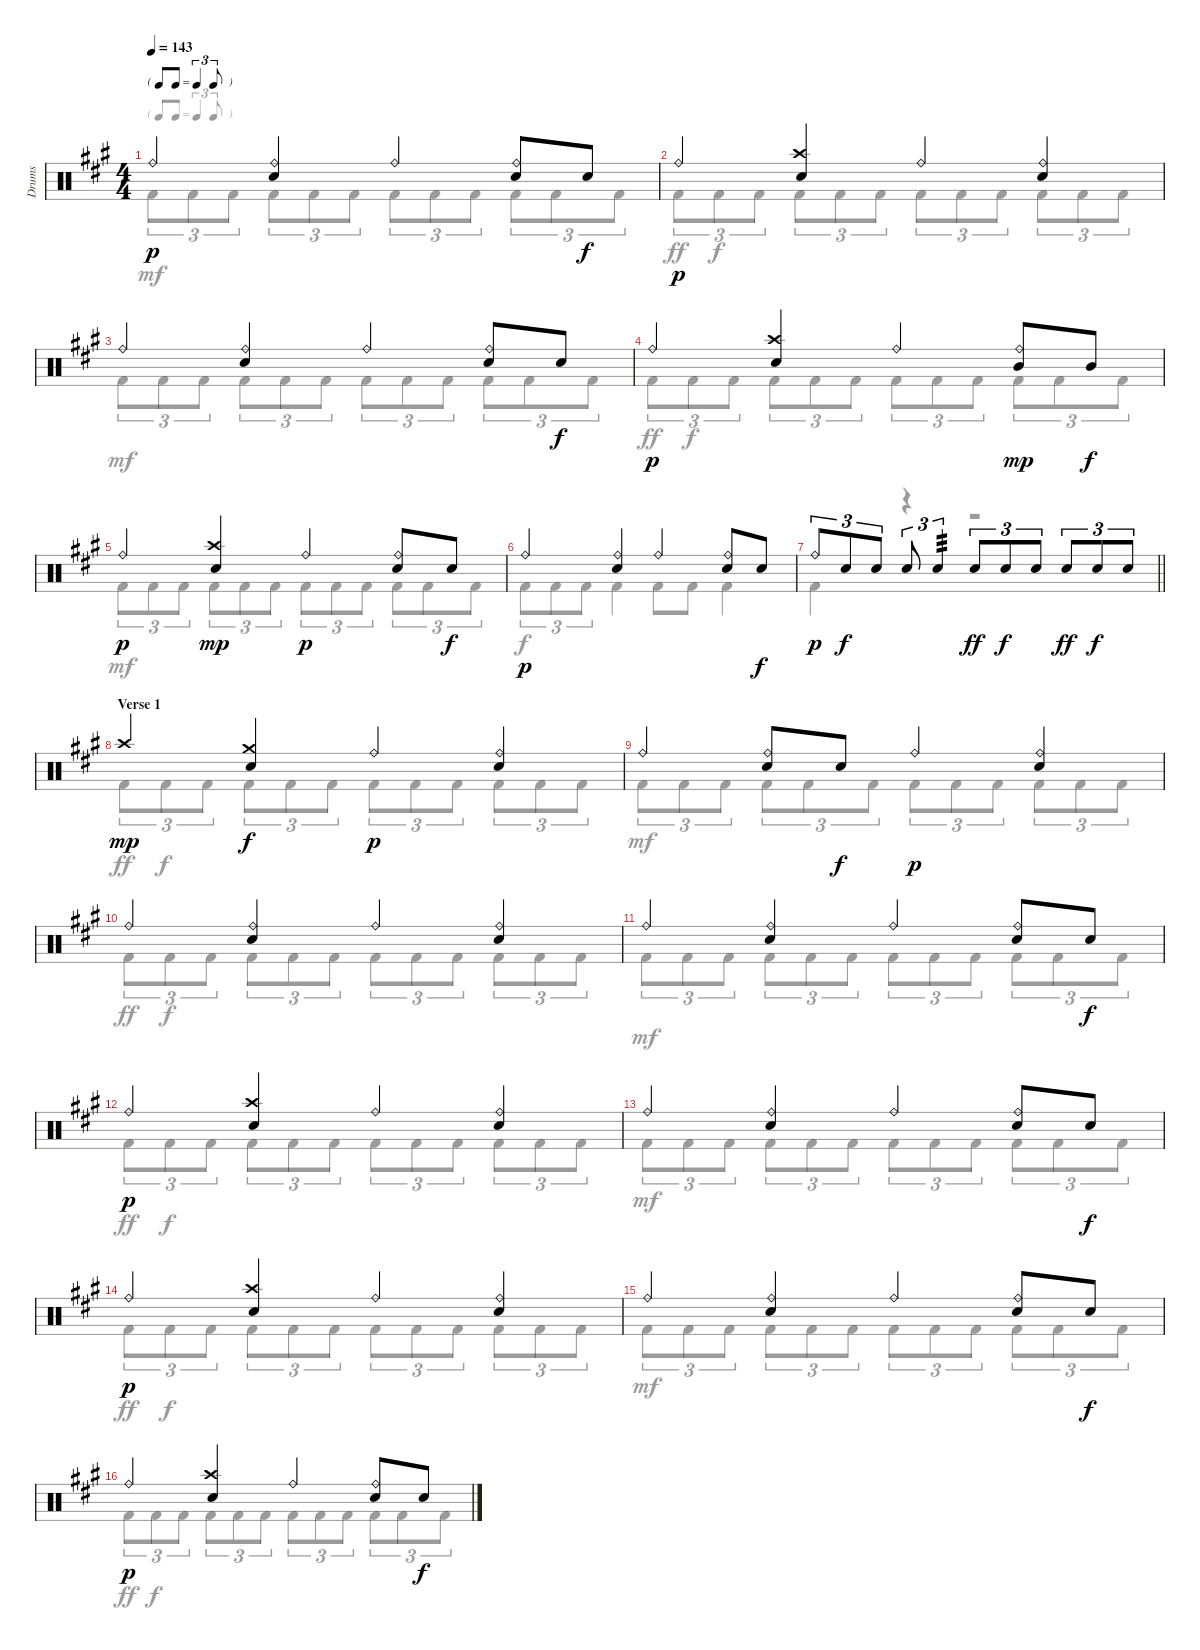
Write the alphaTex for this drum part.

\track ("Drums" "Drums") {instrument percussion}
\staff {score}
\articulation defaults
\voice
\ts (4 4)
\tf triplet8th
\tempo 143
\clef neutral
\ks a "Ride (bell)".4{dy p}
("Ride (bell)" "Electric Snare (hit)").4 "Ride (bell)".4 ("Ride (bell)" "Electric Snare (hit)").8 "Electric Snare (hit)".8{dy f} |
"Ride (bell)".4{dy p} ("Electric Snare (hit)" "Crash high (hit)").4 "Ride (bell)".4 ("Ride (bell)" "Electric Snare (hit)").4 |
"Ride (bell)".4 ("Ride (bell)" "Electric Snare (hit)").4 "Ride (bell)".4 ("Ride (bell)" "Electric Snare (hit)").8 "Electric Snare (hit)".8{dy f} |
"Ride (bell)".4{dy p} ("Electric Snare (hit)" "Crash high (hit)").4 "Ride (bell)".4 ("Ride (bell)" "Mid Tom (hit)").8{dy mp} "Mid Tom (hit)".8{dy f} |
"Ride (bell)".4{dy p} ("Crash high (hit)" "Electric Snare (hit)").4{dy mp} "Ride (bell)".4{dy p} ("Ride (bell)" "Electric Snare (hit)").8 "Electric Snare (hit)".8{dy f} |
"Ride (bell)".4{dy p} ("Ride (bell)" "Electric Snare (hit)").4 "Ride (bell)".4 ("Ride (bell)" "Electric Snare (hit)").8 "Electric Snare (hit)".8{dy f} |
\barLineRight lightlight "Ride (bell)".8{tu (3 2) dy p} "Electric Snare (hit)".8{tu (3 2) dy f} "Electric Snare (hit)".8{tu (3 2)} "Electric Snare (hit)".8{tu (3 2)} "Electric Snare (hit)".4{tu (3 2) tp 3} "Electric Snare (hit)".8{tu (3 2) dy ff} "Electric Snare (hit)".8{tu (3 2) dy f} "Electric Snare (hit)".8{tu (3 2)} "Electric Snare (hit)".8{tu (3 2) dy ff} "Electric Snare (hit)".8{tu (3 2) dy f} "Electric Snare (hit)".8{tu (3 2)}
|
\section ("" "Verse 1")
"Crash high (hit)".4{dy mp} ("Electric Snare (hit)" "Crash medium (hit)").4{dy f} "Ride (bell)".4{dy p} ("Ride (bell)" "Electric Snare (hit)").4 |
"Ride (bell)".4 ("Ride (bell)" "Electric Snare (hit)").8 "Electric Snare (hit)".8{dy f} "Ride (bell)".4{dy p} ("Ride (bell)" "Electric Snare (hit)").4 |
"Ride (bell)".4 ("Electric Snare (hit)" "Ride (bell)").4 "Ride (bell)".4 ("Ride (bell)" "Electric Snare (hit)").4 |
"Ride (bell)".4 ("Ride (bell)" "Electric Snare (hit)").4 "Ride (bell)".4 ("Ride (bell)" "Electric Snare (hit)").8 "Electric Snare (hit)".8{dy f} |
"Ride (bell)".4{dy p} ("Electric Snare (hit)" "Crash high (hit)").4 "Ride (bell)".4 ("Ride (bell)" "Electric Snare (hit)").4 |
"Ride (bell)".4 ("Ride (bell)" "Electric Snare (hit)").4 "Ride (bell)".4 ("Ride (bell)" "Electric Snare (hit)").8 "Electric Snare (hit)".8{dy f} |
"Ride (bell)".4{dy p} ("Electric Snare (hit)" "Crash high (hit)").4 "Ride (bell)".4 ("Ride (bell)" "Electric Snare (hit)").4 |
"Ride (bell)".4 ("Ride (bell)" "Electric Snare (hit)").4 "Ride (bell)".4 ("Ride (bell)" "Electric Snare (hit)").8 "Electric Snare (hit)".8{dy f} |
"Ride (bell)".4{dy p} ("Electric Snare (hit)" "Crash high (hit)").4 "Ride (bell)".4 ("Ride (bell)" "Electric Snare (hit)").8 "Electric Snare (hit)".8{dy f}
\voice
\clef neutral
\ottava regular
\simile none
\ks a "Kick (hit) 2".8{tu (3 2) dy mf} "Kick (hit) 2".8{tu (3 2)} "Kick (hit) 2".8{tu (3 2)} "Kick (hit) 2".8{tu (3 2)} "Kick (hit) 2".8{tu (3 2)} "Kick (hit) 2".8{tu (3 2)} "Kick (hit) 2".8{tu (3 2)} "Kick (hit) 2".8{tu (3 2)} "Kick (hit) 2".8{tu (3 2)} "Kick (hit) 2".8{tu (3 2)} "Kick (hit) 2".8{tu (3 2)} "Kick (hit) 2".8{tu (3 2)}
|
"Kick (hit) 2".8{tu (3 2) dy ff} "Kick (hit) 2".8{tu (3 2) dy f} "Kick (hit) 2".8{tu (3 2)} "Kick (hit) 2".8{tu (3 2)} "Kick (hit) 2".8{tu (3 2)} "Kick (hit) 2".8{tu (3 2)} "Kick (hit) 2".8{tu (3 2)} "Kick (hit) 2".8{tu (3 2)} "Kick (hit) 2".8{tu (3 2)} "Kick (hit) 2".8{tu (3 2)} "Kick (hit) 2".8{tu (3 2)} "Kick (hit) 2".8{tu (3 2)} |
"Kick (hit) 2".8{tu (3 2) dy mf} "Kick (hit) 2".8{tu (3 2)} "Kick (hit) 2".8{tu (3 2)} "Kick (hit) 2".8{tu (3 2)} "Kick (hit) 2".8{tu (3 2)} "Kick (hit) 2".8{tu (3 2)} "Kick (hit) 2".8{tu (3 2)} "Kick (hit) 2".8{tu (3 2)} "Kick (hit) 2".8{tu (3 2)} "Kick (hit) 2".8{tu (3 2)} "Kick (hit) 2".8{tu (3 2)} "Kick (hit) 2".8{tu (3 2)} |
"Kick (hit) 2".8{tu (3 2) dy ff} "Kick (hit) 2".8{tu (3 2) dy f} "Kick (hit) 2".8{tu (3 2)} "Kick (hit) 2".8{tu (3 2)} "Kick (hit) 2".8{tu (3 2)} "Kick (hit) 2".8{tu (3 2)} "Kick (hit) 2".8{tu (3 2)} "Kick (hit) 2".8{tu (3 2)} "Kick (hit) 2".8{tu (3 2)} "Kick (hit) 2".8{tu (3 2)} "Kick (hit) 2".8{tu (3 2)} "Kick (hit) 2".8{tu (3 2)} |
"Kick (hit) 2".8{tu (3 2) dy mf} "Kick (hit) 2".8{tu (3 2)} "Kick (hit) 2".8{tu (3 2)} "Kick (hit) 2".8{tu (3 2)} "Kick (hit) 2".8{tu (3 2)} "Kick (hit) 2".8{tu (3 2)} "Kick (hit) 2".8{tu (3 2)} "Kick (hit) 2".8{tu (3 2)} "Kick (hit) 2".8{tu (3 2)} "Kick (hit) 2".8{tu (3 2)} "Kick (hit) 2".8{tu (3 2)} "Kick (hit) 2".8{tu (3 2)} |
"Kick (hit) 2".8{tu (3 2) dy f} "Kick (hit) 2".8{tu (3 2)} "Kick (hit) 2".8{tu (3 2)} "Kick (hit) 2".4 "Kick (hit) 2".8 "Kick (hit) 2".8 "Kick (hit) 2".4 |
\barLineRight lightlight "Kick (hit) 2".4
r.4 r.2 |
"Kick (hit) 2".8{tu (3 2) dy ff} "Kick (hit) 2".8{tu (3 2) dy f} "Kick (hit) 2".8{tu (3 2)} "Kick (hit) 2".8{tu (3 2)} "Kick (hit) 2".8{tu (3 2)} "Kick (hit) 2".8{tu (3 2)} "Kick (hit) 2".8{tu (3 2)} "Kick (hit) 2".8{tu (3 2)} "Kick (hit) 2".8{tu (3 2)} "Kick (hit) 2".8{tu (3 2)} "Kick (hit) 2".8{tu (3 2)} "Kick (hit) 2".8{tu (3 2)} |
"Kick (hit) 2".8{tu (3 2) dy mf} "Kick (hit) 2".8{tu (3 2)} "Kick (hit) 2".8{tu (3 2)} "Kick (hit) 2".8{tu (3 2)} "Kick (hit) 2".8{tu (3 2)} "Kick (hit) 2".8{tu (3 2)} "Kick (hit) 2".8{tu (3 2)} "Kick (hit) 2".8{tu (3 2)} "Kick (hit) 2".8{tu (3 2)} "Kick (hit) 2".8{tu (3 2)} "Kick (hit) 2".8{tu (3 2)} "Kick (hit) 2".8{tu (3 2)} |
"Kick (hit) 2".8{tu (3 2) dy ff} "Kick (hit) 2".8{tu (3 2) dy f} "Kick (hit) 2".8{tu (3 2)} "Kick (hit) 2".8{tu (3 2)} "Kick (hit) 2".8{tu (3 2)} "Kick (hit) 2".8{tu (3 2)} "Kick (hit) 2".8{tu (3 2)} "Kick (hit) 2".8{tu (3 2)} "Kick (hit) 2".8{tu (3 2)} "Kick (hit) 2".8{tu (3 2)} "Kick (hit) 2".8{tu (3 2)} "Kick (hit) 2".8{tu (3 2)} |
"Kick (hit) 2".8{tu (3 2) dy mf} "Kick (hit) 2".8{tu (3 2)} "Kick (hit) 2".8{tu (3 2)} "Kick (hit) 2".8{tu (3 2)} "Kick (hit) 2".8{tu (3 2)} "Kick (hit) 2".8{tu (3 2)} "Kick (hit) 2".8{tu (3 2)} "Kick (hit) 2".8{tu (3 2)} "Kick (hit) 2".8{tu (3 2)} "Kick (hit) 2".8{tu (3 2)} "Kick (hit) 2".8{tu (3 2)} "Kick (hit) 2".8{tu (3 2)} |
"Kick (hit) 2".8{tu (3 2) dy ff} "Kick (hit) 2".8{tu (3 2) dy f} "Kick (hit) 2".8{tu (3 2)} "Kick (hit) 2".8{tu (3 2)} "Kick (hit) 2".8{tu (3 2)} "Kick (hit) 2".8{tu (3 2)} "Kick (hit) 2".8{tu (3 2)} "Kick (hit) 2".8{tu (3 2)} "Kick (hit) 2".8{tu (3 2)} "Kick (hit) 2".8{tu (3 2)} "Kick (hit) 2".8{tu (3 2)} "Kick (hit) 2".8{tu (3 2)} |
"Kick (hit) 2".8{tu (3 2) dy mf} "Kick (hit) 2".8{tu (3 2)} "Kick (hit) 2".8{tu (3 2)} "Kick (hit) 2".8{tu (3 2)} "Kick (hit) 2".8{tu (3 2)} "Kick (hit) 2".8{tu (3 2)} "Kick (hit) 2".8{tu (3 2)} "Kick (hit) 2".8{tu (3 2)} "Kick (hit) 2".8{tu (3 2)} "Kick (hit) 2".8{tu (3 2)} "Kick (hit) 2".8{tu (3 2)} "Kick (hit) 2".8{tu (3 2)} |
"Kick (hit) 2".8{tu (3 2) dy ff} "Kick (hit) 2".8{tu (3 2) dy f} "Kick (hit) 2".8{tu (3 2)} "Kick (hit) 2".8{tu (3 2)} "Kick (hit) 2".8{tu (3 2)} "Kick (hit) 2".8{tu (3 2)} "Kick (hit) 2".8{tu (3 2)} "Kick (hit) 2".8{tu (3 2)} "Kick (hit) 2".8{tu (3 2)} "Kick (hit) 2".8{tu (3 2)} "Kick (hit) 2".8{tu (3 2)} "Kick (hit) 2".8{tu (3 2)} |
"Kick (hit) 2".8{tu (3 2) dy mf} "Kick (hit) 2".8{tu (3 2)} "Kick (hit) 2".8{tu (3 2)} "Kick (hit) 2".8{tu (3 2)} "Kick (hit) 2".8{tu (3 2)} "Kick (hit) 2".8{tu (3 2)} "Kick (hit) 2".8{tu (3 2)} "Kick (hit) 2".8{tu (3 2)} "Kick (hit) 2".8{tu (3 2)} "Kick (hit) 2".8{tu (3 2)} "Kick (hit) 2".8{tu (3 2)} "Kick (hit) 2".8{tu (3 2)} |
"Kick (hit) 2".8{tu (3 2) dy ff} "Kick (hit) 2".8{tu (3 2) dy f} "Kick (hit) 2".8{tu (3 2)} "Kick (hit) 2".8{tu (3 2)} "Kick (hit) 2".8{tu (3 2)} "Kick (hit) 2".8{tu (3 2)} "Kick (hit) 2".8{tu (3 2)} "Kick (hit) 2".8{tu (3 2)} "Kick (hit) 2".8{tu (3 2)} "Kick (hit) 2".8{tu (3 2)} "Kick (hit) 2".8{tu (3 2)} "Kick (hit) 2".8{tu (3 2)}
